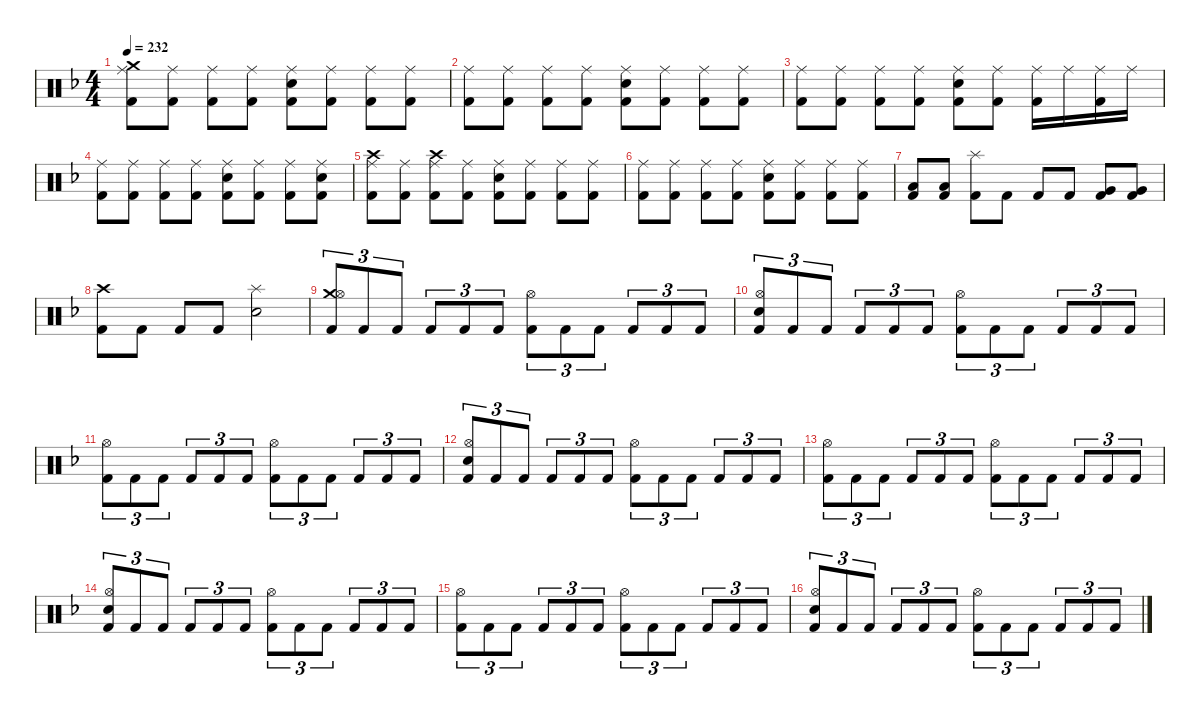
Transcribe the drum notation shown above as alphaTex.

\hideDynamics
\bracketExtendMode nobrackets
\singleTrackTrackNamePolicy hidden
\multiTrackTrackNamePolicy hidden
\firstSystemTrackNameMode fullname
\firstSystemTrackNameOrientation horizontal
\otherSystemsTrackNameOrientation horizontal
\track ("Drumkit" "Drums") {defaultSystemsLayout 4 instrument percussion}
\staff {score}
\articulation defaults
\ts (4 4)
\tempo 232
\clef neutral
\ks dminor
("Crash medium (hit)"{acc forcenatural} "Ride (middle)"{acc forcenatural} "Kick (hit) 2"{acc forcenatural}).8{dy f beam Down} ("Ride (middle)"{acc forcenatural} "Kick (hit) 2"{acc forcenatural}).8{dy mp beam Down} ("Ride (middle)"{acc forcenatural} "Kick (hit) 2"{acc forcenatural}).8{dy f beam Down} ("Ride (middle)"{acc forcenatural} "Kick (hit) 2"{acc forcenatural}).8{dy mp beam Down} ("Ride (middle)"{acc forcenatural} "Snare (hit) 2"{acc forcenatural} "Kick (hit) 2"{acc forcenatural}).8{dy f beam Down} ("Ride (middle)"{acc forcenatural} "Kick (hit) 2"{acc forcenatural}).8{dy mp beam Down} ("Ride (middle)"{acc forcenatural} "Kick (hit) 2"{acc forcenatural}).8{dy f beam Down} ("Ride (middle)"{acc forcenatural} "Kick (hit) 2"{acc forcenatural}).8{dy mp beam Down} |
("Ride (middle)"{acc forcenatural} "Kick (hit) 2"{acc forcenatural}).8{dy f beam Down} ("Ride (middle)"{acc forcenatural} "Kick (hit) 2"{acc forcenatural}).8{dy mp beam Down} ("Ride (middle)"{acc forcenatural} "Kick (hit) 2"{acc forcenatural}).8{dy f beam Down} ("Ride (middle)"{acc forcenatural} "Kick (hit) 2"{acc forcenatural}).8{dy mp beam Down} ("Ride (middle)"{acc forcenatural} "Snare (hit) 2"{acc forcenatural} "Kick (hit) 2"{acc forcenatural}).8{dy f beam Down} ("Ride (middle)"{acc forcenatural} "Kick (hit) 2"{acc forcenatural}).8{dy mp beam Down} ("Ride (middle)"{acc forcenatural} "Kick (hit) 2"{acc forcenatural}).8{dy f beam Down} ("Ride (middle)"{acc forcenatural} "Kick (hit) 2"{acc forcenatural}).8{dy mp beam Down} |
("Ride (middle)"{acc forcenatural} "Kick (hit) 2"{acc forcenatural}).8{dy f beam Down} ("Ride (middle)"{acc forcenatural} "Kick (hit) 2"{acc forcenatural}).8{dy mp beam Down} ("Ride (middle)"{acc forcenatural} "Kick (hit) 2"{acc forcenatural}).8{dy f beam Down} ("Ride (middle)"{acc forcenatural} "Kick (hit) 2"{acc forcenatural}).8{dy mp beam Down} ("Ride (middle)"{acc forcenatural} "Snare (hit) 2"{acc forcenatural} "Kick (hit) 2"{acc forcenatural}).8{dy f beam Down} ("Ride (middle)"{acc forcenatural} "Kick (hit) 2"{acc forcenatural}).8{dy mp beam Down} ("Ride (middle)"{acc forcenatural} "Kick (hit) 2"{acc forcenatural}).16{dy f beam Down} "Ride (middle)"{acc forcenatural}.16{dy mf beam Down} ("Ride (middle)"{acc forcenatural} "Kick (hit) 2"{acc forcenatural}).16{dy mp beam Down} "Ride (middle)"{acc forcenatural}.16{dy mf beam Down} |
("Ride (middle)"{acc forcenatural} "Kick (hit) 2"{acc forcenatural}).8{dy f beam Down} ("Ride (middle)"{acc forcenatural} "Kick (hit) 2"{acc forcenatural}).8{dy mp beam Down} ("Ride (middle)"{acc forcenatural} "Kick (hit) 2"{acc forcenatural}).8{dy f beam Down} ("Ride (middle)"{acc forcenatural} "Kick (hit) 2"{acc forcenatural}).8{dy mp beam Down} ("Ride (middle)"{acc forcenatural} "Snare (hit) 2"{acc forcenatural} "Kick (hit) 2"{acc forcenatural}).8{dy f beam Down} ("Ride (middle)"{acc forcenatural} "Kick (hit) 2"{acc forcenatural}).8{dy mp beam Down} ("Ride (middle)"{acc forcenatural} "Kick (hit) 2"{acc forcenatural}).8{dy f beam Down} ("Ride (middle)"{acc forcenatural} "Snare (hit) 2"{acc forcenatural} "Kick (hit) 2"{acc forcenatural}).8{dy mp beam Down} |
("Crash high (hit)"{acc forcenatural} "Ride (middle)"{acc forcenatural} "Kick (hit) 2"{acc forcenatural}).8{dy f beam Down} ("Ride (middle)"{acc forcenatural} "Kick (hit) 2"{acc forcenatural}).8{dy mp beam Down} ("Crash high (hit)"{acc forcenatural} "Ride (middle)"{acc forcenatural} "Kick (hit) 2"{acc forcenatural}).8{dy f beam Down} ("Ride (middle)"{acc forcenatural} "Kick (hit) 2"{acc forcenatural}).8{dy mp beam Down} ("Ride (middle)"{acc forcenatural} "Snare (hit) 2"{acc forcenatural} "Kick (hit) 2"{acc forcenatural}).8{dy f beam Down} ("Ride (middle)"{acc forcenatural} "Kick (hit) 2"{acc forcenatural}).8{dy mp beam Down} ("Ride (middle)"{acc forcenatural} "Kick (hit) 2"{acc forcenatural}).8{dy f beam Down} ("Ride (middle)"{acc forcenatural} "Kick (hit) 2"{acc forcenatural}).8{dy mp beam Down} |
("Ride (middle)"{acc forcenatural} "Kick (hit) 2"{acc forcenatural}).8{dy f beam Down} ("Ride (middle)"{acc forcenatural} "Kick (hit) 2"{acc forcenatural}).8{dy mp beam Down} ("Ride (middle)"{acc forcenatural} "Kick (hit) 2"{acc forcenatural}).8{dy f beam Down} ("Ride (middle)"{acc forcenatural} "Kick (hit) 2"{acc forcenatural}).8{dy mp beam Down} ("Ride (middle)"{acc forcenatural} "Snare (hit) 2"{acc forcenatural} "Kick (hit) 2"{acc forcenatural}).8{dy f beam Down} ("Ride (middle)"{acc forcenatural} "Kick (hit) 2"{acc forcenatural}).8{dy mp beam Down} ("Ride (middle)"{acc forcenatural} "Kick (hit) 2"{acc forcenatural}).8{dy f beam Down} ("Ride (middle)"{acc forcenatural} "Kick (hit) 2"{acc forcenatural}).8{dy mp beam Down} |
("Low Tom (hit)"{acc forcenatural} "Kick (hit) 2"{acc forcenatural}).8{dy f beam Up} ("Low Tom (hit)"{acc forcenatural} "Kick (hit) 2"{acc forcenatural}).8{beam Up} ("Splash (hit)"{acc forcenatural} "Kick (hit) 2"{acc forcenatural}).8{beam Down} "Kick (hit) 2"{acc forcenatural}.8{beam Down} "Kick (hit) 2"{acc forcenatural}.8{beam Up} "Kick (hit) 2"{acc forcenatural}.8{beam Up} ("Very Low Tom (hit)"{acc forcenatural} "Kick (hit) 2"{acc forcenatural}).8{beam Up} ("Very Low Tom (hit)"{acc forcenatural} "Kick (hit) 2"{acc forcenatural}).8{beam Up} |
("Crash high (hit)"{acc forcenatural} "Kick (hit) 2"{acc forcenatural}).8{beam Down} "Kick (hit) 2"{acc forcenatural}.8{beam Down} "Kick (hit) 2"{acc forcenatural}.8{beam Up} "Kick (hit) 2"{acc forcenatural}.8{beam Up} ("Splash (hit)"{acc forcenatural} "Snare (hit) 2"{acc forcenatural}).2{dy mf beam Down} |
("Crash medium (hit)"{acc forcenatural} "Hi-Hat (open)"{acc forcenatural} "Kick (hit) 2"{acc forcenatural}).8{tu (3 2) dy f beam Up} "Kick (hit) 2"{acc forcenatural}.8{tu (3 2) beam Up} "Kick (hit) 2"{acc forcenatural}.8{tu (3 2) beam Up} "Kick (hit) 2"{acc forcenatural}.8{tu (3 2) beam Up} "Kick (hit) 2"{acc forcenatural}.8{tu (3 2) beam Up} "Kick (hit) 2"{acc forcenatural}.8{tu (3 2) beam Up} ("Hi-Hat (open)"{acc forcenatural} "Kick (hit) 2"{acc forcenatural}).8{tu (3 2) beam Down} "Kick (hit) 2"{acc forcenatural}.8{tu (3 2) beam Down} "Kick (hit) 2"{acc forcenatural}.8{tu (3 2) beam Down} "Kick (hit) 2"{acc forcenatural}.8{tu (3 2) beam Up} "Kick (hit) 2"{acc forcenatural}.8{tu (3 2) beam Up} "Kick (hit) 2"{acc forcenatural}.8{tu (3 2) beam Up} |
("Hi-Hat (open)"{acc forcenatural} "Snare (hit) 2"{acc forcenatural} "Kick (hit) 2"{acc forcenatural}).8{tu (3 2) beam Up} "Kick (hit) 2"{acc forcenatural}.8{tu (3 2) beam Up} "Kick (hit) 2"{acc forcenatural}.8{tu (3 2) beam Up} "Kick (hit) 2"{acc forcenatural}.8{tu (3 2) beam Up} "Kick (hit) 2"{acc forcenatural}.8{tu (3 2) beam Up} "Kick (hit) 2"{acc forcenatural}.8{tu (3 2) beam Up} ("Hi-Hat (open)"{acc forcenatural} "Kick (hit) 2"{acc forcenatural}).8{tu (3 2) beam Down} "Kick (hit) 2"{acc forcenatural}.8{tu (3 2) beam Down} "Kick (hit) 2"{acc forcenatural}.8{tu (3 2) beam Down} "Kick (hit) 2"{acc forcenatural}.8{tu (3 2) beam Up} "Kick (hit) 2"{acc forcenatural}.8{tu (3 2) beam Up} "Kick (hit) 2"{acc forcenatural}.8{tu (3 2) beam Up} |
("Hi-Hat (open)"{acc forcenatural} "Kick (hit) 2"{acc forcenatural}).8{tu (3 2) beam Down} "Kick (hit) 2"{acc forcenatural}.8{tu (3 2) beam Down} "Kick (hit) 2"{acc forcenatural}.8{tu (3 2) beam Down} "Kick (hit) 2"{acc forcenatural}.8{tu (3 2) beam Up} "Kick (hit) 2"{acc forcenatural}.8{tu (3 2) beam Up} "Kick (hit) 2"{acc forcenatural}.8{tu (3 2) beam Up} ("Hi-Hat (open)"{acc forcenatural} "Kick (hit) 2"{acc forcenatural}).8{tu (3 2) beam Down} "Kick (hit) 2"{acc forcenatural}.8{tu (3 2) beam Down} "Kick (hit) 2"{acc forcenatural}.8{tu (3 2) beam Down} "Kick (hit) 2"{acc forcenatural}.8{tu (3 2) beam Up} "Kick (hit) 2"{acc forcenatural}.8{tu (3 2) beam Up} "Kick (hit) 2"{acc forcenatural}.8{tu (3 2) beam Up} |
("Hi-Hat (open)"{acc forcenatural} "Snare (hit) 2"{acc forcenatural} "Kick (hit) 2"{acc forcenatural}).8{tu (3 2) beam Up} "Kick (hit) 2"{acc forcenatural}.8{tu (3 2) beam Up} "Kick (hit) 2"{acc forcenatural}.8{tu (3 2) beam Up} "Kick (hit) 2"{acc forcenatural}.8{tu (3 2) beam Up} "Kick (hit) 2"{acc forcenatural}.8{tu (3 2) beam Up} "Kick (hit) 2"{acc forcenatural}.8{tu (3 2) beam Up} ("Hi-Hat (open)"{acc forcenatural} "Kick (hit) 2"{acc forcenatural}).8{tu (3 2) beam Down} "Kick (hit) 2"{acc forcenatural}.8{tu (3 2) beam Down} "Kick (hit) 2"{acc forcenatural}.8{tu (3 2) beam Down} "Kick (hit) 2"{acc forcenatural}.8{tu (3 2) beam Up} "Kick (hit) 2"{acc forcenatural}.8{tu (3 2) beam Up} "Kick (hit) 2"{acc forcenatural}.8{tu (3 2) beam Up} |
("Hi-Hat (open)"{acc forcenatural} "Kick (hit) 2"{acc forcenatural}).8{tu (3 2) beam Down} "Kick (hit) 2"{acc forcenatural}.8{tu (3 2) beam Down} "Kick (hit) 2"{acc forcenatural}.8{tu (3 2) beam Down} "Kick (hit) 2"{acc forcenatural}.8{tu (3 2) beam Up} "Kick (hit) 2"{acc forcenatural}.8{tu (3 2) beam Up} "Kick (hit) 2"{acc forcenatural}.8{tu (3 2) beam Up} ("Hi-Hat (open)"{acc forcenatural} "Kick (hit) 2"{acc forcenatural}).8{tu (3 2) beam Down} "Kick (hit) 2"{acc forcenatural}.8{tu (3 2) beam Down} "Kick (hit) 2"{acc forcenatural}.8{tu (3 2) beam Down} "Kick (hit) 2"{acc forcenatural}.8{tu (3 2) beam Up} "Kick (hit) 2"{acc forcenatural}.8{tu (3 2) beam Up} "Kick (hit) 2"{acc forcenatural}.8{tu (3 2) beam Up} |
("Hi-Hat (open)"{acc forcenatural} "Snare (hit) 2"{acc forcenatural} "Kick (hit) 2"{acc forcenatural}).8{tu (3 2) beam Up} "Kick (hit) 2"{acc forcenatural}.8{tu (3 2) beam Up} "Kick (hit) 2"{acc forcenatural}.8{tu (3 2) beam Up} "Kick (hit) 2"{acc forcenatural}.8{tu (3 2) beam Up} "Kick (hit) 2"{acc forcenatural}.8{tu (3 2) beam Up} "Kick (hit) 2"{acc forcenatural}.8{tu (3 2) beam Up} ("Hi-Hat (open)"{acc forcenatural} "Kick (hit) 2"{acc forcenatural}).8{tu (3 2) beam Down} "Kick (hit) 2"{acc forcenatural}.8{tu (3 2) beam Down} "Kick (hit) 2"{acc forcenatural}.8{tu (3 2) beam Down} "Kick (hit) 2"{acc forcenatural}.8{tu (3 2) beam Up} "Kick (hit) 2"{acc forcenatural}.8{tu (3 2) beam Up} "Kick (hit) 2"{acc forcenatural}.8{tu (3 2) beam Up} |
("Hi-Hat (open)"{acc forcenatural} "Kick (hit) 2"{acc forcenatural}).8{tu (3 2) beam Down} "Kick (hit) 2"{acc forcenatural}.8{tu (3 2) beam Down} "Kick (hit) 2"{acc forcenatural}.8{tu (3 2) beam Down} "Kick (hit) 2"{acc forcenatural}.8{tu (3 2) beam Up} "Kick (hit) 2"{acc forcenatural}.8{tu (3 2) beam Up} "Kick (hit) 2"{acc forcenatural}.8{tu (3 2) beam Up} ("Hi-Hat (open)"{acc forcenatural} "Kick (hit) 2"{acc forcenatural}).8{tu (3 2) beam Down} "Kick (hit) 2"{acc forcenatural}.8{tu (3 2) beam Down} "Kick (hit) 2"{acc forcenatural}.8{tu (3 2) beam Down} "Kick (hit) 2"{acc forcenatural}.8{tu (3 2) beam Up} "Kick (hit) 2"{acc forcenatural}.8{tu (3 2) beam Up} "Kick (hit) 2"{acc forcenatural}.8{tu (3 2) beam Up} |
("Hi-Hat (open)"{acc forcenatural} "Snare (hit) 2"{acc forcenatural} "Kick (hit) 2"{acc forcenatural}).8{tu (3 2) beam Up} "Kick (hit) 2"{acc forcenatural}.8{tu (3 2) beam Up} "Kick (hit) 2"{acc forcenatural}.8{tu (3 2) beam Up} "Kick (hit) 2"{acc forcenatural}.8{tu (3 2) beam Up} "Kick (hit) 2"{acc forcenatural}.8{tu (3 2) beam Up} "Kick (hit) 2"{acc forcenatural}.8{tu (3 2) beam Up} ("Hi-Hat (open)"{acc forcenatural} "Kick (hit) 2"{acc forcenatural}).8{tu (3 2) beam Down} "Kick (hit) 2"{acc forcenatural}.8{tu (3 2) beam Down} "Kick (hit) 2"{acc forcenatural}.8{tu (3 2) beam Down} "Kick (hit) 2"{acc forcenatural}.8{tu (3 2) beam Up} "Kick (hit) 2"{acc forcenatural}.8{tu (3 2) beam Up} "Kick (hit) 2"{acc forcenatural}.8{tu (3 2) beam Up}
